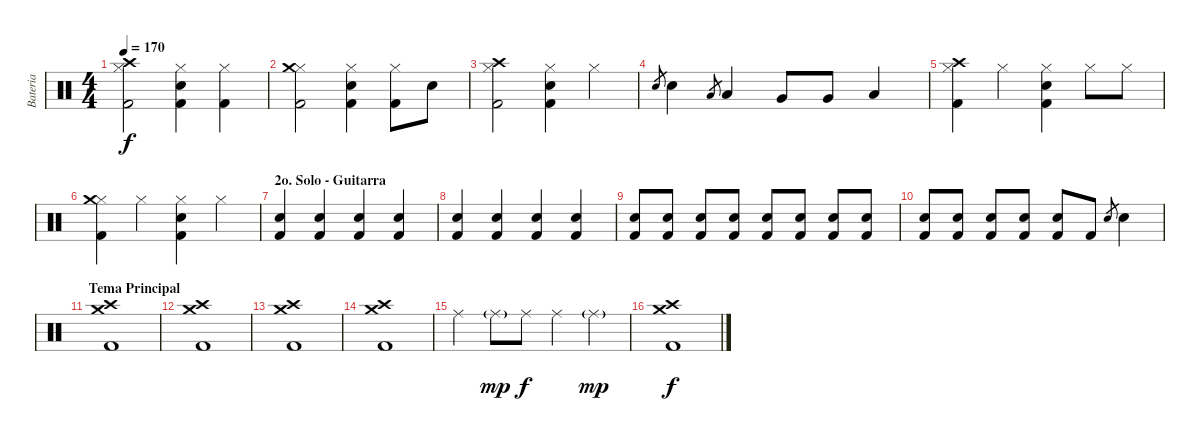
\track ("Bateria" "Bateria") {instrument percussion}
\staff {score}
\articulation defaults
\ts (4 4)
\tempo 170
\clef neutral
\ks c
("Hi-Hat (closed)" "Kick (hit) 2" "Crash high (hit)").2{dy f} ("Hi-Hat (closed)" "Snare (hit) 2" "Kick (hit) 2").4 ("Hi-Hat (closed)" "Kick (hit) 2").4 |
("Hi-Hat (closed)" "Kick (hit) 2" "Crash medium (hit)").2 ("Hi-Hat (closed)" "Snare (hit) 2" "Kick (hit) 2").4 ("Hi-Hat (closed)" "Kick (hit) 2").8 "Snare (hit) 2".8 |
("Hi-Hat (closed)" "Kick (hit) 2" "Crash high (hit)").2 ("Hi-Hat (closed)" "Snare (hit) 2" "Kick (hit) 2").4 "Hi-Hat (closed)".4 |
"Snare (hit) 2".8{gr} "Snare (hit) 2".4 "Low Tom (hit)".8{gr} "Low Tom (hit)".4 "Very Low Tom (hit)".8 "Very Low Tom (hit)".8 "Low Floor Tom (hit)".4 |
("Hi-Hat (closed)" "Kick (hit) 2" "Crash high (hit)").4 "Hi-Hat (closed)".4 ("Hi-Hat (closed)" "Snare (hit) 2" "Kick (hit) 2").4 "Hi-Hat (closed)".8 "Hi-Hat (closed)".8 |
("Hi-Hat (closed)" "Kick (hit) 2" "Crash medium (hit)").4 "Hi-Hat (closed)".4 ("Hi-Hat (closed)" "Snare (hit) 2" "Kick (hit) 2").4 "Hi-Hat (closed)".4 |
\section ("" "2o. Solo - Guitarra")
("Snare (hit) 2" "Kick (hit) 2").4 ("Snare (hit) 2" "Kick (hit) 2").4 ("Snare (hit) 2" "Kick (hit) 2").4 ("Snare (hit) 2" "Kick (hit) 2").4 |
("Snare (hit) 2" "Kick (hit) 2").4 ("Snare (hit) 2" "Kick (hit) 2").4 ("Snare (hit) 2" "Kick (hit) 2").4 ("Snare (hit) 2" "Kick (hit) 2").4 |
("Snare (hit) 2" "Kick (hit) 2").8 ("Snare (hit) 2" "Kick (hit) 2").8 ("Snare (hit) 2" "Kick (hit) 2").8 ("Snare (hit) 2" "Kick (hit) 2").8 ("Snare (hit) 2" "Kick (hit) 2").8 ("Snare (hit) 2" "Kick (hit) 2").8 ("Snare (hit) 2" "Kick (hit) 2").8 ("Snare (hit) 2" "Kick (hit) 2").8 |
("Snare (hit) 2" "Kick (hit) 2").8 ("Snare (hit) 2" "Kick (hit) 2").8 ("Snare (hit) 2" "Kick (hit) 2").8 ("Snare (hit) 2" "Kick (hit) 2").8 ("Snare (hit) 2" "Kick (hit) 2").8 "Kick (hit) 2".8 "Snare (hit) 2".8{gr} "Snare (hit) 2".4 |
\section ("" "Tema Principal")
("Kick (hit) 2" "Crash medium (hit)" "Crash high (hit)").1 |
("Kick (hit) 2" "Crash medium (hit)" "Crash high (hit)").1 |
("Kick (hit) 2" "Crash medium (hit)" "Crash high (hit)").1 |
("Kick (hit) 2" "Crash medium (hit)" "Crash high (hit)").1 |
"Ride (middle)".4 "Ride (middle)"{g}.8{dy mp} "Ride (middle)".8{dy f} "Ride (middle)".4 "Ride (middle)"{g}.4{dy mp} |
("Kick (hit) 2" "Crash medium (hit)" "Crash high (hit)").1{dy f}
